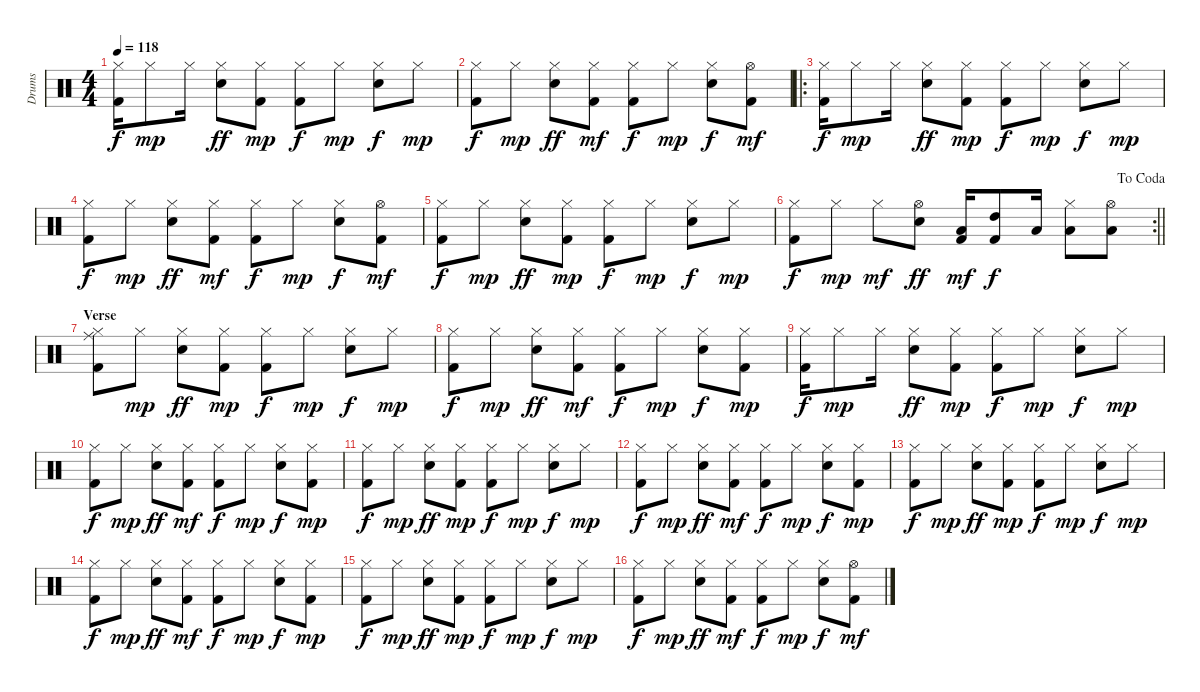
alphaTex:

\track ("Drums" "Drums") {instrument percussion}
\staff {score}
\articulation defaults
\ts (4 4)
\tempo 118
\clef neutral
\ks c
("Kick (hit) 2" "Hi-Hat (closed)").16{dy f} "Hi-Hat (closed)".8{dy mp} "Hi-Hat (closed)".16 ("Snare (hit) 2" "Hi-Hat (closed)").8{dy ff} ("Kick (hit) 2" "Hi-Hat (closed)").8{dy mp} ("Kick (hit) 2" "Hi-Hat (closed)").8{dy f} "Hi-Hat (closed)".8{dy mp} ("Snare (hit) 2" "Hi-Hat (closed)").8{dy f} "Hi-Hat (closed)".8{dy mp} |
("Kick (hit) 2" "Hi-Hat (closed)").8{dy f} "Hi-Hat (closed)".8{dy mp} ("Snare (hit) 2" "Hi-Hat (closed)").8{dy ff} ("Kick (hit) 2" "Hi-Hat (closed)").8{dy mf} ("Kick (hit) 2" "Hi-Hat (closed)").8{dy f} "Hi-Hat (closed)".8{dy mp} ("Snare (hit) 2" "Hi-Hat (closed)").8{dy f} ("Kick (hit) 2" "Hi-Hat (open)").8{dy mf} |
\ro
("Kick (hit) 2" "Hi-Hat (closed)").16{dy f} "Hi-Hat (closed)".8{dy mp} "Hi-Hat (closed)".16 ("Snare (hit) 2" "Hi-Hat (closed)").8{dy ff} ("Kick (hit) 2" "Hi-Hat (closed)").8{dy mp} ("Kick (hit) 2" "Hi-Hat (closed)").8{dy f} "Hi-Hat (closed)".8{dy mp} ("Snare (hit) 2" "Hi-Hat (closed)").8{dy f} "Hi-Hat (closed)".8{dy mp} |
("Kick (hit) 2" "Hi-Hat (closed)").8{dy f} "Hi-Hat (closed)".8{dy mp} ("Snare (hit) 2" "Hi-Hat (closed)").8{dy ff} ("Kick (hit) 2" "Hi-Hat (closed)").8{dy mf} ("Kick (hit) 2" "Hi-Hat (closed)").8{dy f} "Hi-Hat (closed)".8{dy mp} ("Snare (hit) 2" "Hi-Hat (closed)").8{dy f} ("Kick (hit) 2" "Hi-Hat (open)").8{dy mf} |
("Kick (hit) 2" "Hi-Hat (closed)").8{dy f} "Hi-Hat (closed)".8{dy mp} ("Snare (hit) 2" "Hi-Hat (closed)").8{dy ff} ("Kick (hit) 2" "Hi-Hat (closed)").8{dy mp} ("Kick (hit) 2" "Hi-Hat (closed)").8{dy f} "Hi-Hat (closed)".8{dy mp} ("Snare (hit) 2" "Hi-Hat (closed)").8{dy f} "Hi-Hat (closed)".8{dy mp} |
\rc 2
\jump dacoda
\barLineRight lightlight
("Kick (hit) 2" "Hi-Hat (closed)").8{dy f} "Hi-Hat (closed)".8{dy mp} "Hi-Hat (closed)".8{dy mf} ("Snare (hit) 2" "Hi-Hat (open)").8{dy ff} ("Kick (hit) 2" "Low Tom (hit)").16{dy mf} ("Kick (hit) 2" "High Tom (hit)").8{dy f} "Low Tom (hit)".16 ("Hi-Hat (closed)" "Low Tom (hit)").8 ("Hi-Hat (open)" "Low Floor Tom (hit)").8 |
\section ("" "Verse")
("Kick (hit) 2" "Hi-Hat (closed)" "Ride (middle)").8 "Hi-Hat (closed)".8{dy mp} ("Snare (hit) 2" "Hi-Hat (closed)").8{dy ff} ("Kick (hit) 2" "Hi-Hat (closed)").8{dy mp} ("Kick (hit) 2" "Hi-Hat (closed)").8{dy f} "Hi-Hat (closed)".8{dy mp} ("Snare (hit) 2" "Hi-Hat (closed)").8{dy f} "Hi-Hat (closed)".8{dy mp} |
("Kick (hit) 2" "Hi-Hat (closed)").8{dy f} "Hi-Hat (closed)".8{dy mp} ("Snare (hit) 2" "Hi-Hat (closed)").8{dy ff} ("Kick (hit) 2" "Hi-Hat (closed)").8{dy mf} ("Kick (hit) 2" "Hi-Hat (closed)").8{dy f} "Hi-Hat (closed)".8{dy mp} ("Snare (hit) 2" "Hi-Hat (closed)").8{dy f} ("Kick (hit) 2" "Hi-Hat (closed)").8{dy mp} |
("Kick (hit) 2" "Hi-Hat (closed)").16{dy f} "Hi-Hat (closed)".8{dy mp} "Hi-Hat (closed)".16 ("Snare (hit) 2" "Hi-Hat (closed)").8{dy ff} ("Kick (hit) 2" "Hi-Hat (closed)").8{dy mp} ("Kick (hit) 2" "Hi-Hat (closed)").8{dy f} "Hi-Hat (closed)".8{dy mp} ("Snare (hit) 2" "Hi-Hat (closed)").8{dy f} "Hi-Hat (closed)".8{dy mp} |
("Kick (hit) 2" "Hi-Hat (closed)").8{dy f} "Hi-Hat (closed)".8{dy mp} ("Snare (hit) 2" "Hi-Hat (closed)").8{dy ff} ("Kick (hit) 2" "Hi-Hat (closed)").8{dy mf} ("Kick (hit) 2" "Hi-Hat (closed)").8{dy f} "Hi-Hat (closed)".8{dy mp} ("Snare (hit) 2" "Hi-Hat (closed)").8{dy f} ("Kick (hit) 2" "Hi-Hat (closed)").8{dy mp} |
("Kick (hit) 2" "Hi-Hat (closed)").8{dy f} "Hi-Hat (closed)".8{dy mp} ("Snare (hit) 2" "Hi-Hat (closed)").8{dy ff} ("Kick (hit) 2" "Hi-Hat (closed)").8{dy mp} ("Kick (hit) 2" "Hi-Hat (closed)").8{dy f} "Hi-Hat (closed)".8{dy mp} ("Snare (hit) 2" "Hi-Hat (closed)").8{dy f} "Hi-Hat (closed)".8{dy mp} |
("Kick (hit) 2" "Hi-Hat (closed)").8{dy f} "Hi-Hat (closed)".8{dy mp} ("Snare (hit) 2" "Hi-Hat (closed)").8{dy ff} ("Kick (hit) 2" "Hi-Hat (closed)").8{dy mf} ("Kick (hit) 2" "Hi-Hat (closed)").8{dy f} "Hi-Hat (closed)".8{dy mp} ("Snare (hit) 2" "Hi-Hat (closed)").8{dy f} ("Kick (hit) 2" "Hi-Hat (closed)").8{dy mp} |
("Kick (hit) 2" "Hi-Hat (closed)").8{dy f} "Hi-Hat (closed)".8{dy mp} ("Snare (hit) 2" "Hi-Hat (closed)").8{dy ff} ("Kick (hit) 2" "Hi-Hat (closed)").8{dy mp} ("Kick (hit) 2" "Hi-Hat (closed)").8{dy f} "Hi-Hat (closed)".8{dy mp} ("Snare (hit) 2" "Hi-Hat (closed)").8{dy f} "Hi-Hat (closed)".8{dy mp} |
("Kick (hit) 2" "Hi-Hat (closed)").8{dy f} "Hi-Hat (closed)".8{dy mp} ("Snare (hit) 2" "Hi-Hat (closed)").8{dy ff} ("Kick (hit) 2" "Hi-Hat (closed)").8{dy mf} ("Kick (hit) 2" "Hi-Hat (closed)").8{dy f} "Hi-Hat (closed)".8{dy mp} ("Snare (hit) 2" "Hi-Hat (closed)").8{dy f} ("Kick (hit) 2" "Hi-Hat (closed)").8{dy mp} |
("Kick (hit) 2" "Hi-Hat (closed)").8{dy f} "Hi-Hat (closed)".8{dy mp} ("Snare (hit) 2" "Hi-Hat (closed)").8{dy ff} ("Kick (hit) 2" "Hi-Hat (closed)").8{dy mp} ("Kick (hit) 2" "Hi-Hat (closed)").8{dy f} "Hi-Hat (closed)".8{dy mp} ("Snare (hit) 2" "Hi-Hat (closed)").8{dy f} "Hi-Hat (closed)".8{dy mp} |
("Kick (hit) 2" "Hi-Hat (closed)").8{dy f} "Hi-Hat (closed)".8{dy mp} ("Snare (hit) 2" "Hi-Hat (closed)").8{dy ff} ("Kick (hit) 2" "Hi-Hat (closed)").8{dy mf} ("Kick (hit) 2" "Hi-Hat (closed)").8{dy f} "Hi-Hat (closed)".8{dy mp} ("Snare (hit) 2" "Hi-Hat (closed)").8{dy f} ("Kick (hit) 2" "Hi-Hat (open)").8{dy mf}
